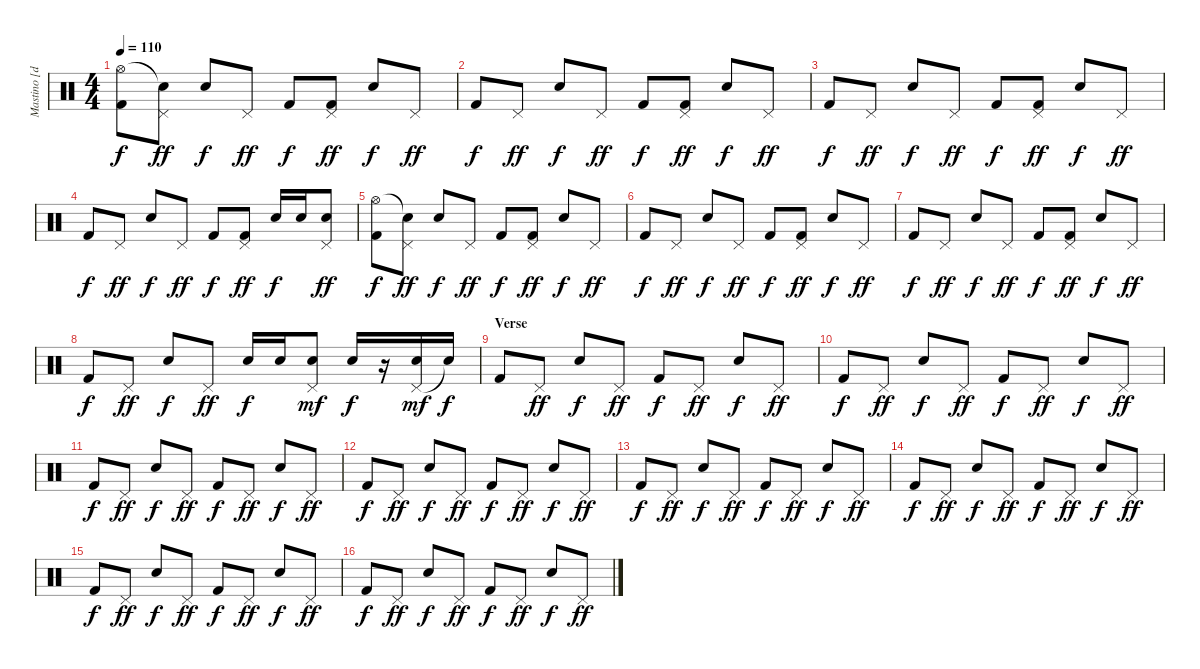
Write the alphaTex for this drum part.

\track ("Mastino [drums]" "Mastino [d") {instrument percussion}
\staff {score}
\articulation defaults
\ts (4 4)
\tempo 110
\clef neutral
\ks c
("Hi-Hat (open)" "Kick (hit) 2").8{dy f} ("Snare (hit)"{t} "Pedal Hi-Hat (hit)").8{dy ff} "Electric Snare (hit)".8{dy f} "Pedal Hi-Hat (hit)".8{dy ff} "Kick (hit) 2".8{dy f} ("Pedal Hi-Hat (hit)" "Kick (hit) 2").8{dy ff} "Electric Snare (hit)".8{dy f} "Pedal Hi-Hat (hit)".8{dy ff} |
"Kick (hit) 2".8{dy f} "Pedal Hi-Hat (hit)".8{dy ff} "Electric Snare (hit)".8{dy f} "Pedal Hi-Hat (hit)".8{dy ff} "Kick (hit) 2".8{dy f} ("Pedal Hi-Hat (hit)" "Kick (hit) 2").8{dy ff} "Electric Snare (hit)".8{dy f} "Pedal Hi-Hat (hit)".8{dy ff} |
"Kick (hit) 2".8{dy f} "Pedal Hi-Hat (hit)".8{dy ff} "Electric Snare (hit)".8{dy f} "Pedal Hi-Hat (hit)".8{dy ff} "Kick (hit) 2".8{dy f} ("Pedal Hi-Hat (hit)" "Kick (hit) 2").8{dy ff} "Electric Snare (hit)".8{dy f} "Pedal Hi-Hat (hit)".8{dy ff} |
"Kick (hit) 2".8{dy f} "Pedal Hi-Hat (hit)".8{dy ff} "Electric Snare (hit)".8{dy f} "Pedal Hi-Hat (hit)".8{dy ff} "Kick (hit) 2".8{dy f} ("Pedal Hi-Hat (hit)" "Kick (hit) 2").8{dy ff} "Electric Snare (hit)".16{dy f} "Electric Snare (hit)".16 ("Pedal Hi-Hat (hit)" "Electric Snare (hit)").8{dy ff} |
("Hi-Hat (open)" "Kick (hit) 2").8{dy f} ("Snare (hit)"{t} "Pedal Hi-Hat (hit)").8{dy ff} "Electric Snare (hit)".8{dy f} "Pedal Hi-Hat (hit)".8{dy ff} "Kick (hit) 2".8{dy f} ("Pedal Hi-Hat (hit)" "Kick (hit) 2").8{dy ff} "Electric Snare (hit)".8{dy f} "Pedal Hi-Hat (hit)".8{dy ff} |
"Kick (hit) 2".8{dy f} "Pedal Hi-Hat (hit)".8{dy ff} "Electric Snare (hit)".8{dy f} "Pedal Hi-Hat (hit)".8{dy ff} "Kick (hit) 2".8{dy f} ("Pedal Hi-Hat (hit)" "Kick (hit) 2").8{dy ff} "Electric Snare (hit)".8{dy f} "Pedal Hi-Hat (hit)".8{dy ff} |
"Kick (hit) 2".8{dy f} "Pedal Hi-Hat (hit)".8{dy ff} "Electric Snare (hit)".8{dy f} "Pedal Hi-Hat (hit)".8{dy ff} "Kick (hit) 2".8{dy f} ("Pedal Hi-Hat (hit)" "Kick (hit) 2").8{dy ff} "Electric Snare (hit)".8{dy f} "Pedal Hi-Hat (hit)".8{dy ff} |
"Kick (hit) 2".8{dy f} "Pedal Hi-Hat (hit)".8{dy ff} "Electric Snare (hit)".8{dy f} "Pedal Hi-Hat (hit)".8{dy ff} "Electric Snare (hit)".16{dy f} "Electric Snare (hit)".16 ("Pedal Hi-Hat (hit)" "Electric Snare (hit)").8{dy mf} "Electric Snare (hit)".16{dy f} r.16 ("Pedal Hi-Hat (hit)" "Electric Snare (hit)").16{dy mf} "Snare (hit)"{t}.16{dy f} |
\section ("" "Verse")
"Kick (hit) 2".8 "Pedal Hi-Hat (hit)".8{dy ff} "Electric Snare (hit)".8{dy f} "Pedal Hi-Hat (hit)".8{dy ff} "Kick (hit) 2".8{dy f} "Pedal Hi-Hat (hit)".8{dy ff} "Electric Snare (hit)".8{dy f} "Pedal Hi-Hat (hit)".8{dy ff} |
"Kick (hit) 2".8{dy f} "Pedal Hi-Hat (hit)".8{dy ff} "Electric Snare (hit)".8{dy f} "Pedal Hi-Hat (hit)".8{dy ff} "Kick (hit) 2".8{dy f} "Pedal Hi-Hat (hit)".8{dy ff} "Electric Snare (hit)".8{dy f} "Pedal Hi-Hat (hit)".8{dy ff} |
"Kick (hit) 2".8{dy f} "Pedal Hi-Hat (hit)".8{dy ff} "Electric Snare (hit)".8{dy f} "Pedal Hi-Hat (hit)".8{dy ff} "Kick (hit) 2".8{dy f} "Pedal Hi-Hat (hit)".8{dy ff} "Electric Snare (hit)".8{dy f} "Pedal Hi-Hat (hit)".8{dy ff} |
"Kick (hit) 2".8{dy f} "Pedal Hi-Hat (hit)".8{dy ff} "Electric Snare (hit)".8{dy f} "Pedal Hi-Hat (hit)".8{dy ff} "Kick (hit) 2".8{dy f} "Pedal Hi-Hat (hit)".8{dy ff} "Electric Snare (hit)".8{dy f} "Pedal Hi-Hat (hit)".8{dy ff} |
"Kick (hit) 2".8{dy f} "Pedal Hi-Hat (hit)".8{dy ff} "Electric Snare (hit)".8{dy f} "Pedal Hi-Hat (hit)".8{dy ff} "Kick (hit) 2".8{dy f} "Pedal Hi-Hat (hit)".8{dy ff} "Electric Snare (hit)".8{dy f} "Pedal Hi-Hat (hit)".8{dy ff} |
"Kick (hit) 2".8{dy f} "Pedal Hi-Hat (hit)".8{dy ff} "Electric Snare (hit)".8{dy f} "Pedal Hi-Hat (hit)".8{dy ff} "Kick (hit) 2".8{dy f} "Pedal Hi-Hat (hit)".8{dy ff} "Electric Snare (hit)".8{dy f} "Pedal Hi-Hat (hit)".8{dy ff} |
"Kick (hit) 2".8{dy f} "Pedal Hi-Hat (hit)".8{dy ff} "Electric Snare (hit)".8{dy f} "Pedal Hi-Hat (hit)".8{dy ff} "Kick (hit) 2".8{dy f} "Pedal Hi-Hat (hit)".8{dy ff} "Electric Snare (hit)".8{dy f} "Pedal Hi-Hat (hit)".8{dy ff} |
"Kick (hit) 2".8{dy f} "Pedal Hi-Hat (hit)".8{dy ff} "Electric Snare (hit)".8{dy f} "Pedal Hi-Hat (hit)".8{dy ff} "Kick (hit) 2".8{dy f} "Pedal Hi-Hat (hit)".8{dy ff} "Electric Snare (hit)".8{dy f} "Pedal Hi-Hat (hit)".8{dy ff}
